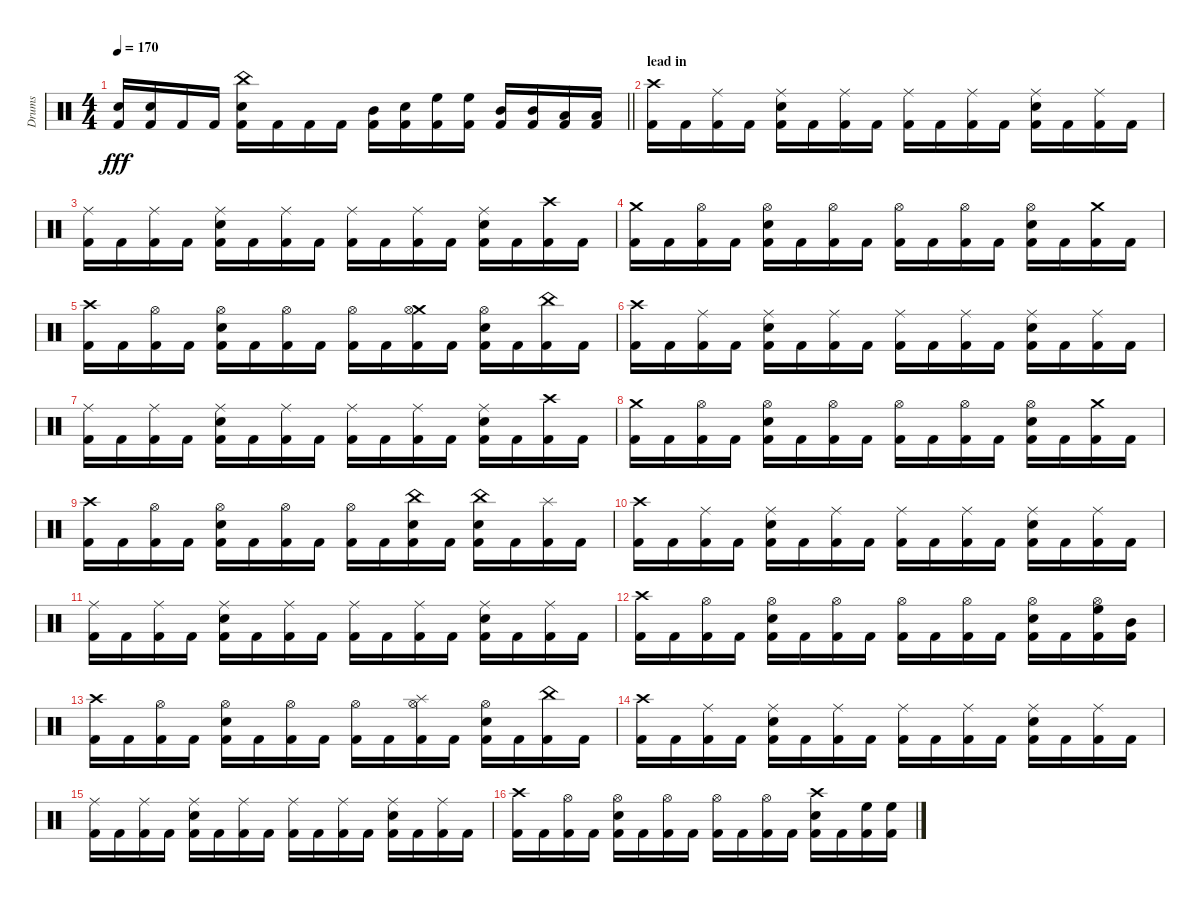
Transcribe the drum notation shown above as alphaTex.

\track ("Drums" "Drums") {instrument percussion}
\staff {score}
\articulation defaults
\ts (4 4)
\tempo 170
\clef neutral
\barLineRight lightlight
\ks c
("Snare (hit) 2" "Kick (hit) 2").16{dy fff} ("Snare (hit) 2" "Kick (hit) 2").16 "Kick (hit) 2".16 "Kick (hit) 2".16 ("China (hit)" "Snare (hit) 2" "Kick (hit) 2").16 "Kick (hit) 2".16 "Kick (hit) 2".16 "Kick (hit) 2".16 ("Mid Tom (hit)" "Kick (hit) 2").16 ("Snare (hit) 2" "Kick (hit) 2").16 ("High Floor Tom (hit)" "Kick (hit) 2").16 ("High Floor Tom (hit)" "Kick (hit) 2").16 ("Mid Tom (hit)" "Kick (hit) 2").16 ("Mid Tom (hit)" "Kick (hit) 2").16 ("Low Tom (hit)" "Kick (hit) 2").16 ("Low Tom (hit)" "Kick (hit) 2").16 |
\section ("" "lead in")
("Crash high (hit)" "Kick (hit) 2").16 "Kick (hit) 2".16 ("Ride (middle)" "Kick (hit) 2").16 "Kick (hit) 2".16 ("Ride (middle)" "Snare (hit) 2" "Kick (hit) 2").16 "Kick (hit) 2".16 ("Ride (middle)" "Kick (hit) 2").16 "Kick (hit) 2".16 ("Ride (middle)" "Kick (hit) 2").16 "Kick (hit) 2".16 ("Ride (middle)" "Kick (hit) 2").16 "Kick (hit) 2".16 ("Ride (middle)" "Snare (hit) 2" "Kick (hit) 2").16 "Kick (hit) 2".16 ("Ride (middle)" "Kick (hit) 2").16 "Kick (hit) 2".16 |
("Ride (middle)" "Kick (hit) 2").16 "Kick (hit) 2".16 ("Ride (middle)" "Kick (hit) 2").16 "Kick (hit) 2".16 ("Ride (middle)" "Snare (hit) 2" "Kick (hit) 2").16 "Kick (hit) 2".16 ("Ride (middle)" "Kick (hit) 2").16 "Kick (hit) 2".16 ("Ride (middle)" "Kick (hit) 2").16 "Kick (hit) 2".16 ("Ride (middle)" "Kick (hit) 2").16 "Kick (hit) 2".16 ("Ride (middle)" "Snare (hit) 2" "Kick (hit) 2").16 "Kick (hit) 2".16 ("Crash high (hit)" "Kick (hit) 2").16 "Kick (hit) 2".16 |
("Crash medium (hit)" "Kick (hit) 2").16 "Kick (hit) 2".16 ("Hi-Hat (open)" "Kick (hit) 2").16 "Kick (hit) 2".16 ("Snare (hit) 2" "Hi-Hat (open)" "Kick (hit) 2").16 "Kick (hit) 2".16 ("Hi-Hat (open)" "Kick (hit) 2").16 "Kick (hit) 2".16 ("Hi-Hat (open)" "Kick (hit) 2").16 "Kick (hit) 2".16 ("Hi-Hat (open)" "Kick (hit) 2").16 "Kick (hit) 2".16 ("Snare (hit) 2" "Hi-Hat (open)" "Kick (hit) 2").16 "Kick (hit) 2".16 ("Crash medium (hit)" "Kick (hit) 2").16 "Kick (hit) 2".16 |
("Crash high (hit)" "Kick (hit) 2").16 "Kick (hit) 2".16 ("Hi-Hat (open)" "Kick (hit) 2").16 "Kick (hit) 2".16 ("Snare (hit) 2" "Hi-Hat (open)" "Kick (hit) 2").16 "Kick (hit) 2".16 ("Hi-Hat (open)" "Kick (hit) 2").16 "Kick (hit) 2".16 ("Hi-Hat (open)" "Kick (hit) 2").16 "Kick (hit) 2".16 ("Crash medium (hit)" "Hi-Hat (open)" "Kick (hit) 2").16 "Kick (hit) 2".16 ("Snare (hit) 2" "Hi-Hat (open)" "Kick (hit) 2").16 "Kick (hit) 2".16 ("China (hit)" "Kick (hit) 2").16 "Kick (hit) 2".16 |
("Crash high (hit)" "Kick (hit) 2").16 "Kick (hit) 2".16 ("Ride (middle)" "Kick (hit) 2").16 "Kick (hit) 2".16 ("Ride (middle)" "Snare (hit) 2" "Kick (hit) 2").16 "Kick (hit) 2".16 ("Ride (middle)" "Kick (hit) 2").16 "Kick (hit) 2".16 ("Ride (middle)" "Kick (hit) 2").16 "Kick (hit) 2".16 ("Ride (middle)" "Kick (hit) 2").16 "Kick (hit) 2".16 ("Ride (middle)" "Snare (hit) 2" "Kick (hit) 2").16 "Kick (hit) 2".16 ("Ride (middle)" "Kick (hit) 2").16 "Kick (hit) 2".16 |
("Ride (middle)" "Kick (hit) 2").16 "Kick (hit) 2".16 ("Ride (middle)" "Kick (hit) 2").16 "Kick (hit) 2".16 ("Ride (middle)" "Snare (hit) 2" "Kick (hit) 2").16 "Kick (hit) 2".16 ("Ride (middle)" "Kick (hit) 2").16 "Kick (hit) 2".16 ("Ride (middle)" "Kick (hit) 2").16 "Kick (hit) 2".16 ("Ride (middle)" "Kick (hit) 2").16 "Kick (hit) 2".16 ("Ride (middle)" "Snare (hit) 2" "Kick (hit) 2").16 "Kick (hit) 2".16 ("Crash high (hit)" "Kick (hit) 2").16 "Kick (hit) 2".16 |
("Crash medium (hit)" "Kick (hit) 2").16 "Kick (hit) 2".16 ("Hi-Hat (open)" "Kick (hit) 2").16 "Kick (hit) 2".16 ("Snare (hit) 2" "Hi-Hat (open)" "Kick (hit) 2").16 "Kick (hit) 2".16 ("Hi-Hat (open)" "Kick (hit) 2").16 "Kick (hit) 2".16 ("Hi-Hat (open)" "Kick (hit) 2").16 "Kick (hit) 2".16 ("Hi-Hat (open)" "Kick (hit) 2").16 "Kick (hit) 2".16 ("Snare (hit) 2" "Hi-Hat (open)" "Kick (hit) 2").16 "Kick (hit) 2".16 ("Crash medium (hit)" "Kick (hit) 2").16 "Kick (hit) 2".16 |
("Crash high (hit)" "Kick (hit) 2").16 "Kick (hit) 2".16 ("Hi-Hat (open)" "Kick (hit) 2").16 "Kick (hit) 2".16 ("Snare (hit) 2" "Hi-Hat (open)" "Kick (hit) 2").16 "Kick (hit) 2".16 ("Hi-Hat (open)" "Kick (hit) 2").16 "Kick (hit) 2".16 ("Hi-Hat (open)" "Kick (hit) 2").16 "Kick (hit) 2".16 ("China (hit)" "Snare (hit) 2" "Kick (hit) 2").16 "Kick (hit) 2".16 ("China (hit)" "Snare (hit) 2" "Kick (hit) 2").16 "Kick (hit) 2".16 ("Splash (hit)" "Kick (hit) 2").16 "Kick (hit) 2".16 |
("Crash high (hit)" "Kick (hit) 2").16 "Kick (hit) 2".16 ("Ride (middle)" "Kick (hit) 2").16 "Kick (hit) 2".16 ("Ride (middle)" "Snare (hit) 2" "Kick (hit) 2").16 "Kick (hit) 2".16 ("Ride (middle)" "Kick (hit) 2").16 "Kick (hit) 2".16 ("Ride (middle)" "Kick (hit) 2").16 "Kick (hit) 2".16 ("Ride (middle)" "Kick (hit) 2").16 "Kick (hit) 2".16 ("Ride (middle)" "Snare (hit) 2" "Kick (hit) 2").16 "Kick (hit) 2".16 ("Ride (middle)" "Kick (hit) 2").16 "Kick (hit) 2".16 |
("Ride (middle)" "Kick (hit) 2").16 "Kick (hit) 2".16 ("Ride (middle)" "Kick (hit) 2").16 "Kick (hit) 2".16 ("Ride (middle)" "Snare (hit) 2" "Kick (hit) 2").16 "Kick (hit) 2".16 ("Ride (middle)" "Kick (hit) 2").16 "Kick (hit) 2".16 ("Ride (middle)" "Kick (hit) 2").16 "Kick (hit) 2".16 ("Ride (middle)" "Kick (hit) 2").16 "Kick (hit) 2".16 ("Ride (middle)" "Snare (hit) 2" "Kick (hit) 2").16 "Kick (hit) 2".16 ("Ride (middle)" "Kick (hit) 2").16 "Kick (hit) 2".16 |
("Crash high (hit)" "Kick (hit) 2").16 "Kick (hit) 2".16 ("Hi-Hat (open)" "Kick (hit) 2").16 "Kick (hit) 2".16 ("Snare (hit) 2" "Hi-Hat (open)" "Kick (hit) 2").16 "Kick (hit) 2".16 ("Hi-Hat (open)" "Kick (hit) 2").16 "Kick (hit) 2".16 ("Hi-Hat (open)" "Kick (hit) 2").16 "Kick (hit) 2".16 ("Hi-Hat (open)" "Kick (hit) 2").16 "Kick (hit) 2".16 ("Snare (hit) 2" "Hi-Hat (open)" "Kick (hit) 2").16 "Kick (hit) 2".16 ("High Floor Tom (hit)" "Hi-Hat (open)" "Kick (hit) 2").16 ("Mid Tom (hit)" "Kick (hit) 2").16 |
("Crash high (hit)" "Kick (hit) 2").16 "Kick (hit) 2".16 ("Hi-Hat (open)" "Kick (hit) 2").16 "Kick (hit) 2".16 ("Snare (hit) 2" "Hi-Hat (open)" "Kick (hit) 2").16 "Kick (hit) 2".16 ("Hi-Hat (open)" "Kick (hit) 2").16 "Kick (hit) 2".16 ("Hi-Hat (open)" "Kick (hit) 2").16 "Kick (hit) 2".16 ("Splash (hit)" "Hi-Hat (open)" "Kick (hit) 2").16 "Kick (hit) 2".16 ("Snare (hit) 2" "Hi-Hat (open)" "Kick (hit) 2").16 "Kick (hit) 2".16 ("China (hit)" "Kick (hit) 2").16 "Kick (hit) 2".16 |
("Crash high (hit)" "Kick (hit) 2").16 "Kick (hit) 2".16 ("Ride (middle)" "Kick (hit) 2").16 "Kick (hit) 2".16 ("Ride (middle)" "Snare (hit) 2" "Kick (hit) 2").16 "Kick (hit) 2".16 ("Ride (middle)" "Kick (hit) 2").16 "Kick (hit) 2".16 ("Ride (middle)" "Kick (hit) 2").16 "Kick (hit) 2".16 ("Ride (middle)" "Kick (hit) 2").16 "Kick (hit) 2".16 ("Ride (middle)" "Snare (hit) 2" "Kick (hit) 2").16 "Kick (hit) 2".16 ("Ride (middle)" "Kick (hit) 2").16 "Kick (hit) 2".16 |
("Ride (middle)" "Kick (hit) 2").16 "Kick (hit) 2".16 ("Ride (middle)" "Kick (hit) 2").16 "Kick (hit) 2".16 ("Ride (middle)" "Snare (hit) 2" "Kick (hit) 2").16 "Kick (hit) 2".16 ("Ride (middle)" "Kick (hit) 2").16 "Kick (hit) 2".16 ("Ride (middle)" "Kick (hit) 2").16 "Kick (hit) 2".16 ("Ride (middle)" "Kick (hit) 2").16 "Kick (hit) 2".16 ("Ride (middle)" "Snare (hit) 2" "Kick (hit) 2").16 "Kick (hit) 2".16 ("Ride (middle)" "Kick (hit) 2").16 "Kick (hit) 2".16 |
("Crash high (hit)" "Kick (hit) 2").16 "Kick (hit) 2".16 ("Hi-Hat (open)" "Kick (hit) 2").16 "Kick (hit) 2".16 ("Snare (hit) 2" "Hi-Hat (open)" "Kick (hit) 2").16 "Kick (hit) 2".16 ("Hi-Hat (open)" "Kick (hit) 2").16 "Kick (hit) 2".16 ("Hi-Hat (open)" "Kick (hit) 2").16 "Kick (hit) 2".16 ("Hi-Hat (open)" "Kick (hit) 2").16 "Kick (hit) 2".16 ("Crash high (hit)" "Snare (hit) 2" "Kick (hit) 2").16 "Kick (hit) 2".16 ("High Floor Tom (hit)" "Kick (hit) 2").16 ("High Floor Tom (hit)" "Kick (hit) 2").16
